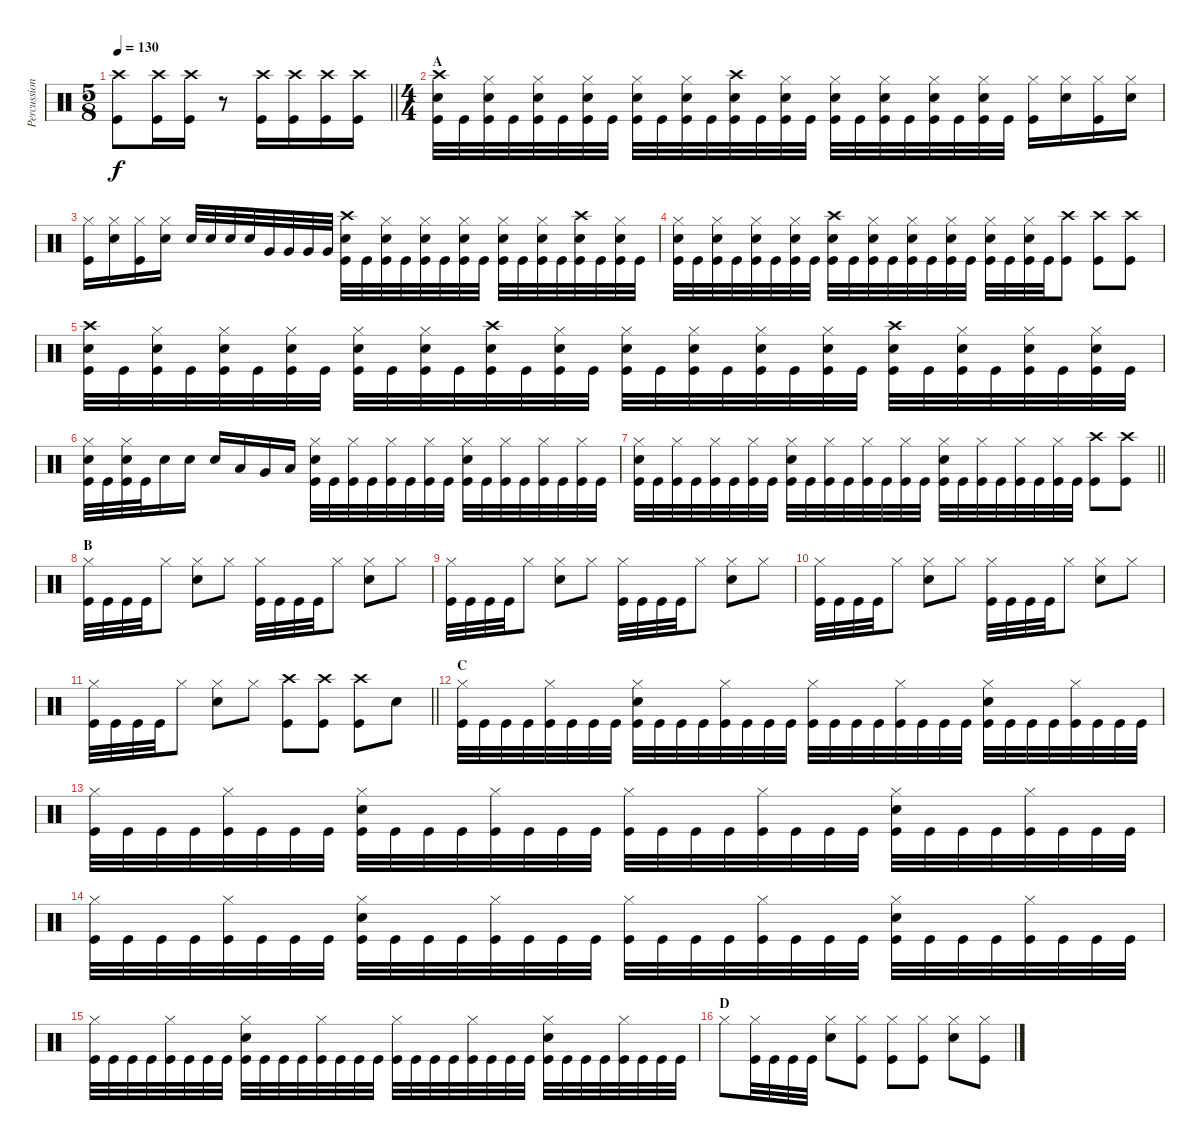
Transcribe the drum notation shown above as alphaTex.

\track ("Percussion" "Percussion") {instrument percussion}
\staff {score}
\articulation defaults
\ts (5 8)
\tempo 130
\clef neutral
\barLineRight lightlight
\ks c
("Kick (hit)" "Crash high (hit)").8{dy f} ("Kick (hit)" "Crash high (hit)").16 ("Kick (hit)" "Crash high (hit)").16 r.8 ("Kick (hit)" "Crash high (hit)").16 ("Kick (hit)" "Crash high (hit)").16 ("Kick (hit)" "Crash high (hit)").16 ("Kick (hit)" "Crash high (hit)").16 |
\ts (4 4)
\section ("" "A")
("Kick (hit)" "Crash high (hit)" "Snare (hit) 2").32 "Kick (hit)".32 ("Kick (hit)" "Hi-Hat (closed)" "Snare (hit) 2").32 "Kick (hit)".32 ("Kick (hit)" "Hi-Hat (closed)" "Snare (hit) 2").32 "Kick (hit)".32 ("Kick (hit)" "Hi-Hat (closed)" "Snare (hit) 2").32 "Kick (hit)".32 ("Kick (hit)" "Hi-Hat (closed)" "Snare (hit) 2").32 "Kick (hit)".32 ("Kick (hit)" "Hi-Hat (closed)" "Snare (hit) 2").32 "Kick (hit)".32 ("Kick (hit)" "Crash high (hit)" "Snare (hit) 2").32 "Kick (hit)".32 ("Kick (hit)" "Hi-Hat (closed)" "Snare (hit) 2").32 "Kick (hit)".32 ("Kick (hit)" "Hi-Hat (closed)" "Snare (hit) 2").32 "Kick (hit)".32 ("Kick (hit)" "Hi-Hat (closed)" "Snare (hit) 2").32 "Kick (hit)".32 ("Kick (hit)" "Hi-Hat (closed)" "Snare (hit) 2").32 "Kick (hit)".32 ("Kick (hit)" "Hi-Hat (closed)" "Snare (hit) 2").32 "Kick (hit)".32 ("Kick (hit)" "Hi-Hat (closed)").16 ("Snare (hit) 2" "Hi-Hat (closed)").16 ("Kick (hit)" "Hi-Hat (closed)").16 ("Snare (hit) 2" "Hi-Hat (closed)").16 |
("Kick (hit)" "Hi-Hat (closed)").16 ("Snare (hit) 2" "Hi-Hat (closed)").16 ("Kick (hit)" "Hi-Hat (closed)").16 ("Snare (hit) 2" "Hi-Hat (closed)").16 "Snare (hit) 2".32 "Snare (hit) 2".32 "Snare (hit) 2".32 "Snare (hit) 2".32 "Very Low Tom (hit)".32 "Very Low Tom (hit)".32 "Very Low Tom (hit)".32 "Very Low Tom (hit)".32 ("Kick (hit)" "Crash high (hit)" "Snare (hit) 2").32 "Kick (hit)".32 ("Kick (hit)" "Hi-Hat (closed)" "Snare (hit) 2").32 "Kick (hit)".32 ("Kick (hit)" "Hi-Hat (closed)" "Snare (hit) 2").32 "Kick (hit)".32 ("Kick (hit)" "Hi-Hat (closed)" "Snare (hit) 2").32 "Kick (hit)".32 ("Kick (hit)" "Hi-Hat (closed)" "Snare (hit) 2").32 "Kick (hit)".32 ("Kick (hit)" "Hi-Hat (closed)" "Snare (hit) 2").32 "Kick (hit)".32 ("Kick (hit)" "Crash high (hit)" "Snare (hit) 2").32 "Kick (hit)".32 ("Kick (hit)" "Hi-Hat (closed)" "Snare (hit) 2").32 "Kick (hit)".32 |
("Kick (hit)" "Hi-Hat (closed)" "Snare (hit) 2").32 "Kick (hit)".32 ("Kick (hit)" "Hi-Hat (closed)" "Snare (hit) 2").32 "Kick (hit)".32 ("Kick (hit)" "Hi-Hat (closed)" "Snare (hit) 2").32 "Kick (hit)".32 ("Kick (hit)" "Hi-Hat (closed)" "Snare (hit) 2").32 "Kick (hit)".32 ("Kick (hit)" "Crash high (hit)" "Snare (hit) 2").32 "Kick (hit)".32 ("Kick (hit)" "Hi-Hat (closed)" "Snare (hit) 2").32 "Kick (hit)".32 ("Kick (hit)" "Hi-Hat (closed)" "Snare (hit) 2").32 "Kick (hit)".32 ("Kick (hit)" "Hi-Hat (closed)" "Snare (hit) 2").32 "Kick (hit)".32 ("Kick (hit)" "Hi-Hat (closed)" "Snare (hit) 2").32 "Kick (hit)".32 ("Kick (hit)" "Hi-Hat (closed)" "Snare (hit) 2").32 "Kick (hit)".32 ("Kick (hit)" "Crash high (hit)").8 ("Kick (hit)" "Crash high (hit)").8 ("Kick (hit)" "Crash high (hit)").8 |
("Kick (hit)" "Crash high (hit)" "Snare (hit) 2").32 "Kick (hit)".32 ("Kick (hit)" "Hi-Hat (closed)" "Snare (hit) 2").32 "Kick (hit)".32 ("Kick (hit)" "Hi-Hat (closed)" "Snare (hit) 2").32 "Kick (hit)".32 ("Kick (hit)" "Hi-Hat (closed)" "Snare (hit) 2").32 "Kick (hit)".32 ("Kick (hit)" "Hi-Hat (closed)" "Snare (hit) 2").32 "Kick (hit)".32 ("Kick (hit)" "Hi-Hat (closed)" "Snare (hit) 2").32 "Kick (hit)".32 ("Kick (hit)" "Crash high (hit)" "Snare (hit) 2").32 "Kick (hit)".32 ("Kick (hit)" "Hi-Hat (closed)" "Snare (hit) 2").32 "Kick (hit)".32 ("Kick (hit)" "Hi-Hat (closed)" "Snare (hit) 2").32 "Kick (hit)".32 ("Kick (hit)" "Hi-Hat (closed)" "Snare (hit) 2").32 "Kick (hit)".32 ("Kick (hit)" "Hi-Hat (closed)" "Snare (hit) 2").32 "Kick (hit)".32 ("Kick (hit)" "Hi-Hat (closed)" "Snare (hit) 2").32 "Kick (hit)".32 ("Kick (hit)" "Crash high (hit)" "Snare (hit) 2").32 "Kick (hit)".32 ("Kick (hit)" "Hi-Hat (closed)" "Snare (hit) 2").32 "Kick (hit)".32 ("Kick (hit)" "Hi-Hat (closed)" "Snare (hit) 2").32 "Kick (hit)".32 ("Kick (hit)" "Hi-Hat (closed)" "Snare (hit) 2").32 "Kick (hit)".32 |
("Kick (hit)" "Hi-Hat (closed)" "Snare (hit) 2").32 "Kick (hit)".32 ("Kick (hit)" "Hi-Hat (closed)" "Snare (hit) 2").32 "Kick (hit)".32 "Snare (hit) 2".16 "Snare (hit) 2".16 "Snare (hit) 2".16 "Low Tom (hit)".16 "Very Low Tom (hit)".16 "Low Floor Tom (hit)".16 ("Kick (hit)" "Snare (hit) 2" "Hi-Hat (closed)").32 "Kick (hit)".32 ("Kick (hit)" "Hi-Hat (closed)").32 "Kick (hit)".32 ("Kick (hit)" "Hi-Hat (closed)").32 "Kick (hit)".32 ("Kick (hit)" "Hi-Hat (closed)").32 "Kick (hit)".32 ("Kick (hit)" "Snare (hit) 2" "Hi-Hat (closed)").32 "Kick (hit)".32 ("Kick (hit)" "Hi-Hat (closed)").32 "Kick (hit)".32 ("Kick (hit)" "Hi-Hat (closed)").32 "Kick (hit)".32 ("Kick (hit)" "Hi-Hat (closed)").32 "Kick (hit)".32 |
\barLineRight lightlight
("Kick (hit)" "Snare (hit) 2" "Hi-Hat (closed)").32 "Kick (hit)".32 ("Kick (hit)" "Hi-Hat (closed)").32 "Kick (hit)".32 ("Kick (hit)" "Hi-Hat (closed)").32 "Kick (hit)".32 ("Kick (hit)" "Hi-Hat (closed)").32 "Kick (hit)".32 ("Kick (hit)" "Snare (hit) 2" "Hi-Hat (closed)").32 "Kick (hit)".32 ("Kick (hit)" "Hi-Hat (closed)").32 "Kick (hit)".32 ("Kick (hit)" "Hi-Hat (closed)").32 "Kick (hit)".32 ("Kick (hit)" "Hi-Hat (closed)").32 "Kick (hit)".32 ("Kick (hit)" "Snare (hit) 2" "Hi-Hat (closed)").32 "Kick (hit)".32 ("Kick (hit)" "Hi-Hat (closed)").32 "Kick (hit)".32 ("Kick (hit)" "Hi-Hat (closed)").32 "Kick (hit)".32 ("Kick (hit)" "Hi-Hat (closed)").32 "Kick (hit)".32 ("Kick (hit)" "Crash high (hit)").8 ("Kick (hit)" "Crash high (hit)").8 |
\section ("" "B")
("Kick (hit)" "Hi-Hat (closed)").32 "Kick (hit)".32 "Kick (hit)".32 "Kick (hit)".32 "Hi-Hat (closed)".8 ("Snare (hit) 2" "Hi-Hat (closed)").8 "Hi-Hat (closed)".8 ("Kick (hit)" "Hi-Hat (closed)").32 "Kick (hit)".32 "Kick (hit)".32 "Kick (hit)".32 "Hi-Hat (closed)".8 ("Snare (hit) 2" "Hi-Hat (closed)").8 "Hi-Hat (closed)".8 |
("Kick (hit)" "Hi-Hat (closed)").32 "Kick (hit)".32 "Kick (hit)".32 "Kick (hit)".32 "Hi-Hat (closed)".8 ("Snare (hit) 2" "Hi-Hat (closed)").8 "Hi-Hat (closed)".8 ("Kick (hit)" "Hi-Hat (closed)").32 "Kick (hit)".32 "Kick (hit)".32 "Kick (hit)".32 "Hi-Hat (closed)".8 ("Snare (hit) 2" "Hi-Hat (closed)").8 "Hi-Hat (closed)".8 |
("Kick (hit)" "Hi-Hat (closed)").32 "Kick (hit)".32 "Kick (hit)".32 "Kick (hit)".32 "Hi-Hat (closed)".8 ("Snare (hit) 2" "Hi-Hat (closed)").8 "Hi-Hat (closed)".8 ("Kick (hit)" "Hi-Hat (closed)").32 "Kick (hit)".32 "Kick (hit)".32 "Kick (hit)".32 "Hi-Hat (closed)".8 ("Snare (hit) 2" "Hi-Hat (closed)").8 "Hi-Hat (closed)".8 |
\barLineRight lightlight
("Kick (hit)" "Hi-Hat (closed)").32 "Kick (hit)".32 "Kick (hit)".32 "Kick (hit)".32 "Hi-Hat (closed)".8 ("Snare (hit) 2" "Hi-Hat (closed)").8 "Hi-Hat (closed)".8 ("Kick (hit)" "Crash high (hit)").8 ("Kick (hit)" "Crash high (hit)").8 ("Kick (hit)" "Crash high (hit)").8 "Snare (hit) 2".8 |
\section ("" "C")
("Kick (hit)" "Hi-Hat (closed)").32 "Kick (hit)".32 "Kick (hit)".32 "Kick (hit)".32 ("Kick (hit)" "Hi-Hat (closed)").32 "Kick (hit)".32 "Kick (hit)".32 "Kick (hit)".32 ("Kick (hit)" "Snare (hit) 2" "Hi-Hat (closed)").32 "Kick (hit)".32 "Kick (hit)".32 "Kick (hit)".32 ("Kick (hit)" "Hi-Hat (closed)").32 "Kick (hit)".32 "Kick (hit)".32 "Kick (hit)".32 ("Kick (hit)" "Hi-Hat (closed)").32 "Kick (hit)".32 "Kick (hit)".32 "Kick (hit)".32 ("Kick (hit)" "Hi-Hat (closed)").32 "Kick (hit)".32 "Kick (hit)".32 "Kick (hit)".32 ("Kick (hit)" "Snare (hit) 2" "Hi-Hat (closed)").32 "Kick (hit)".32 "Kick (hit)".32 "Kick (hit)".32 ("Kick (hit)" "Hi-Hat (closed)").32 "Kick (hit)".32 "Kick (hit)".32 "Kick (hit)".32 |
("Kick (hit)" "Hi-Hat (closed)").32 "Kick (hit)".32 "Kick (hit)".32 "Kick (hit)".32 ("Kick (hit)" "Hi-Hat (closed)").32 "Kick (hit)".32 "Kick (hit)".32 "Kick (hit)".32 ("Kick (hit)" "Snare (hit) 2" "Hi-Hat (closed)").32 "Kick (hit)".32 "Kick (hit)".32 "Kick (hit)".32 ("Kick (hit)" "Hi-Hat (closed)").32 "Kick (hit)".32 "Kick (hit)".32 "Kick (hit)".32 ("Kick (hit)" "Hi-Hat (closed)").32 "Kick (hit)".32 "Kick (hit)".32 "Kick (hit)".32 ("Kick (hit)" "Hi-Hat (closed)").32 "Kick (hit)".32 "Kick (hit)".32 "Kick (hit)".32 ("Kick (hit)" "Snare (hit) 2" "Hi-Hat (closed)").32 "Kick (hit)".32 "Kick (hit)".32 "Kick (hit)".32 ("Kick (hit)" "Hi-Hat (closed)").32 "Kick (hit)".32 "Kick (hit)".32 "Kick (hit)".32 |
("Kick (hit)" "Hi-Hat (closed)").32 "Kick (hit)".32 "Kick (hit)".32 "Kick (hit)".32 ("Kick (hit)" "Hi-Hat (closed)").32 "Kick (hit)".32 "Kick (hit)".32 "Kick (hit)".32 ("Kick (hit)" "Snare (hit) 2" "Hi-Hat (closed)").32 "Kick (hit)".32 "Kick (hit)".32 "Kick (hit)".32 ("Kick (hit)" "Hi-Hat (closed)").32 "Kick (hit)".32 "Kick (hit)".32 "Kick (hit)".32 ("Kick (hit)" "Hi-Hat (closed)").32 "Kick (hit)".32 "Kick (hit)".32 "Kick (hit)".32 ("Kick (hit)" "Hi-Hat (closed)").32 "Kick (hit)".32 "Kick (hit)".32 "Kick (hit)".32 ("Kick (hit)" "Snare (hit) 2" "Hi-Hat (closed)").32 "Kick (hit)".32 "Kick (hit)".32 "Kick (hit)".32 ("Kick (hit)" "Hi-Hat (closed)").32 "Kick (hit)".32 "Kick (hit)".32 "Kick (hit)".32 |
("Kick (hit)" "Hi-Hat (closed)").32 "Kick (hit)".32 "Kick (hit)".32 "Kick (hit)".32 ("Kick (hit)" "Hi-Hat (closed)").32 "Kick (hit)".32 "Kick (hit)".32 "Kick (hit)".32 ("Kick (hit)" "Snare (hit) 2" "Hi-Hat (closed)").32 "Kick (hit)".32 "Kick (hit)".32 "Kick (hit)".32 ("Kick (hit)" "Hi-Hat (closed)").32 "Kick (hit)".32 "Kick (hit)".32 "Kick (hit)".32 ("Kick (hit)" "Hi-Hat (closed)").32 "Kick (hit)".32 "Kick (hit)".32 "Kick (hit)".32 ("Kick (hit)" "Hi-Hat (closed)").32 "Kick (hit)".32 "Kick (hit)".32 "Kick (hit)".32 ("Kick (hit)" "Snare (hit) 2" "Hi-Hat (closed)").32 "Kick (hit)".32 "Kick (hit)".32 "Kick (hit)".32 ("Kick (hit)" "Hi-Hat (closed)").32 "Kick (hit)".32 "Kick (hit)".32 "Kick (hit)".32 |
\section ("" "D")
"Hi-Hat (closed)".8 ("Kick (hit)" "Hi-Hat (closed)").32 "Kick (hit)".32 "Kick (hit)".32 "Kick (hit)".32 ("Snare (hit) 2" "Hi-Hat (closed)").8 ("Kick (hit)" "Hi-Hat (closed)").8 ("Kick (hit)" "Hi-Hat (closed)").8 ("Kick (hit)" "Hi-Hat (closed)").8 ("Snare (hit) 2" "Hi-Hat (closed)").8 ("Kick (hit)" "Hi-Hat (closed)").8
